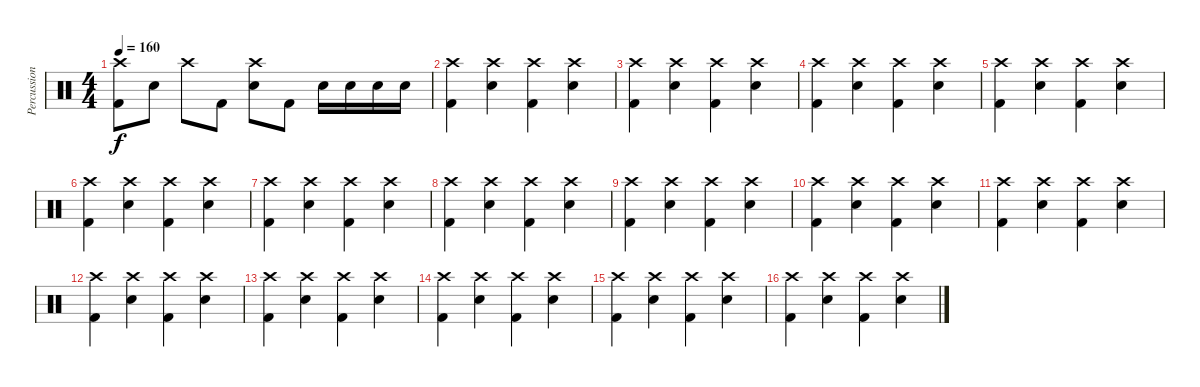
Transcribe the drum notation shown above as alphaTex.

\track ("Percussions" "Percussion") {instrument percussion}
\staff {score}
\articulation defaults
\ts (4 4)
\tempo 160
\clef neutral
\ks c
("Kick (hit) 2" "Crash high (hit)").8{dy f} "Snare (hit) 2".8 "Crash high (hit)".8 "Kick (hit) 2".8 ("Snare (hit) 2" "Crash high (hit)").8 "Kick (hit) 2".8 "Snare (hit) 2".16 "Snare (hit) 2".16 "Snare (hit) 2".16 "Snare (hit) 2".16 |
("Kick (hit) 2" "Crash high (hit)").4 ("Snare (hit) 2" "Crash high (hit)").4 ("Kick (hit) 2" "Crash high (hit)").4 ("Snare (hit) 2" "Crash high (hit)").4 |
("Kick (hit) 2" "Crash high (hit)").4 ("Snare (hit) 2" "Crash high (hit)").4 ("Kick (hit) 2" "Crash high (hit)").4 ("Snare (hit) 2" "Crash high (hit)").4 |
("Kick (hit) 2" "Crash high (hit)").4 ("Snare (hit) 2" "Crash high (hit)").4 ("Kick (hit) 2" "Crash high (hit)").4 ("Snare (hit) 2" "Crash high (hit)").4 |
("Kick (hit) 2" "Crash high (hit)").4 ("Snare (hit) 2" "Crash high (hit)").4 ("Kick (hit) 2" "Crash high (hit)").4 ("Snare (hit) 2" "Crash high (hit)").4 |
("Kick (hit) 2" "Crash high (hit)").4 ("Snare (hit) 2" "Crash high (hit)").4 ("Kick (hit) 2" "Crash high (hit)").4 ("Snare (hit) 2" "Crash high (hit)").4 |
("Kick (hit) 2" "Crash high (hit)").4 ("Snare (hit) 2" "Crash high (hit)").4 ("Kick (hit) 2" "Crash high (hit)").4 ("Snare (hit) 2" "Crash high (hit)").4 |
("Kick (hit) 2" "Crash high (hit)").4 ("Snare (hit) 2" "Crash high (hit)").4 ("Kick (hit) 2" "Crash high (hit)").4 ("Snare (hit) 2" "Crash high (hit)").4 |
("Kick (hit) 2" "Crash high (hit)").4 ("Snare (hit) 2" "Crash high (hit)").4 ("Kick (hit) 2" "Crash high (hit)").4 ("Snare (hit) 2" "Crash high (hit)").4 |
("Kick (hit) 2" "Crash high (hit)").4 ("Snare (hit) 2" "Crash high (hit)").4 ("Kick (hit) 2" "Crash high (hit)").4 ("Snare (hit) 2" "Crash high (hit)").4 |
("Kick (hit) 2" "Crash high (hit)").4 ("Snare (hit) 2" "Crash high (hit)").4 ("Kick (hit) 2" "Crash high (hit)").4 ("Snare (hit) 2" "Crash high (hit)").4 |
("Kick (hit) 2" "Crash high (hit)").4 ("Snare (hit) 2" "Crash high (hit)").4 ("Kick (hit) 2" "Crash high (hit)").4 ("Snare (hit) 2" "Crash high (hit)").4 |
("Kick (hit) 2" "Crash high (hit)").4 ("Snare (hit) 2" "Crash high (hit)").4 ("Kick (hit) 2" "Crash high (hit)").4 ("Snare (hit) 2" "Crash high (hit)").4 |
("Kick (hit) 2" "Crash high (hit)").4 ("Snare (hit) 2" "Crash high (hit)").4 ("Kick (hit) 2" "Crash high (hit)").4 ("Snare (hit) 2" "Crash high (hit)").4 |
("Kick (hit) 2" "Crash high (hit)").4 ("Snare (hit) 2" "Crash high (hit)").4 ("Kick (hit) 2" "Crash high (hit)").4 ("Snare (hit) 2" "Crash high (hit)").4 |
("Kick (hit) 2" "Crash high (hit)").4 ("Snare (hit) 2" "Crash high (hit)").4 ("Kick (hit) 2" "Crash high (hit)").4 ("Snare (hit) 2" "Crash high (hit)").4
